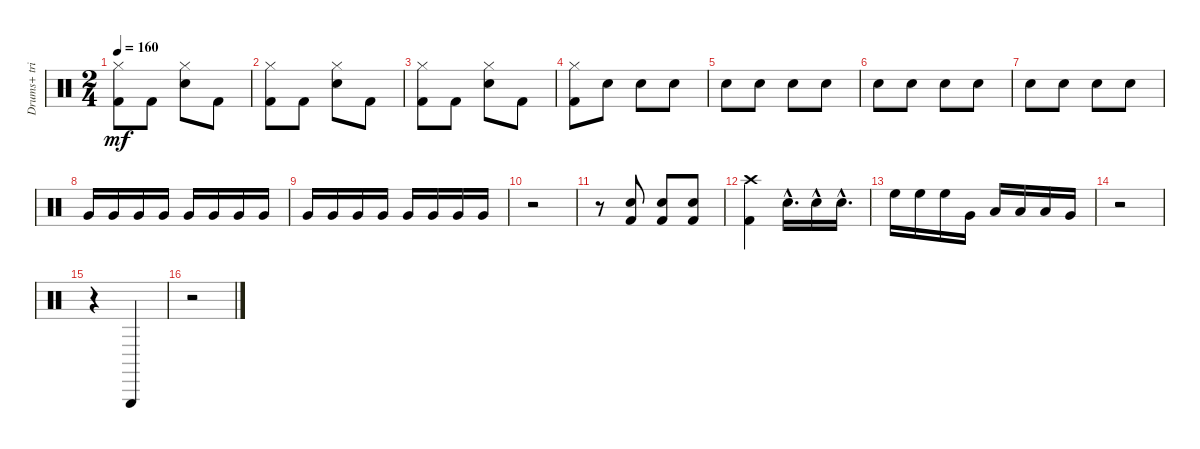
\track ("Drums+ triangle" "Drums+ tri") {instrument percussion}
\staff {score}
\articulation defaults
\ts (2 4)
\tempo 160
\clef neutral
\ks c
("Kick (hit) 2" "Hi-Hat (closed)").8{dy mf} "Kick (hit) 2".8 ("Snare (hit) 2" "Hi-Hat (closed)").8 "Kick (hit) 2".8 |
("Kick (hit) 2" "Hi-Hat (closed)").8 "Kick (hit) 2".8 ("Snare (hit) 2" "Hi-Hat (closed)").8 "Kick (hit) 2".8 |
("Kick (hit) 2" "Hi-Hat (closed)").8 "Kick (hit) 2".8 ("Snare (hit) 2" "Hi-Hat (closed)").8 "Kick (hit) 2".8 |
("Kick (hit) 2" "Hi-Hat (closed)").8 "Snare (hit) 2".8 "Snare (hit) 2".8 "Snare (hit) 2".8 |
"Snare (hit) 2".8 "Snare (hit) 2".8 "Snare (hit) 2".8 "Snare (hit) 2".8 |
"Snare (hit) 2".8 "Snare (hit) 2".8 "Snare (hit) 2".8 "Snare (hit) 2".8 |
"Snare (hit) 2".8 "Snare (hit) 2".8 "Snare (hit) 2".8 "Snare (hit) 2".8 |
"Very Low Tom (hit)".16 "Very Low Tom (hit)".16 "Very Low Tom (hit)".16 "Very Low Tom (hit)".16 "Very Low Tom (hit)".16 "Very Low Tom (hit)".16 "Very Low Tom (hit)".16 "Very Low Tom (hit)".16 |
"Very Low Tom (hit)".16 "Very Low Tom (hit)".16 "Very Low Tom (hit)".16 "Very Low Tom (hit)".16 "Very Low Tom (hit)".16 "Very Low Tom (hit)".16 "Very Low Tom (hit)".16 "Very Low Tom (hit)".16 |
r.2 |
r.8 ("Kick (hit) 2" "Snare (hit) 2").8 ("Kick (hit) 2" "Snare (hit) 2").8 ("Kick (hit) 2" "Snare (hit) 2").8 |
("Crash high (hit)" "Kick (hit) 2").4 "Snare (hit) 2"{hac}.16{d} "Snare (hit) 2"{hac}.16 "Snare (hit) 2"{hac}.16{d} |
"High Floor Tom (hit)".16 "High Floor Tom (hit)".16 "High Floor Tom (hit)".16 "Very Low Tom (hit)".16 "Low Tom (hit)".16 "Low Tom (hit)".16 "Low Tom (hit)".16 "Very Low Tom (hit)".16 |
r.2 |
r.4 "Triangle (hit)".4 |
r.2
